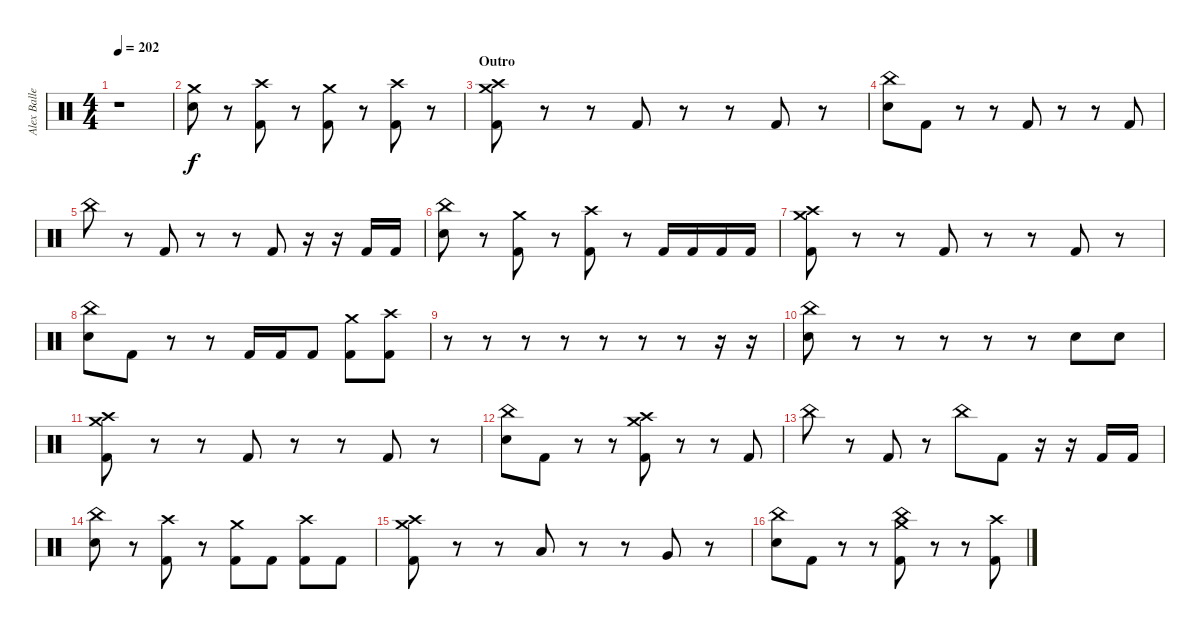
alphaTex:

\track ("Alex Ballew" "Alex Balle") {instrument percussion}
\staff {score}
\articulation defaults
\ts (4 4)
\tempo 202
\clef neutral
\ks c
r.1{dy f} |
("Crash medium (hit)" "Electric Snare (hit)").8 r.8 ("Crash high (hit)" "Kick (hit) 2").8 r.8 ("Crash medium (hit)" "Kick (hit) 2").8 r.8 ("Crash high (hit)" "Kick (hit) 2").8 r.8 |
\section ("" "Outro")
("Crash medium (hit)" "Crash high (hit)" "Kick (hit) 2").8 r.8 r.8 "Kick (hit) 2".8 r.8 r.8 "Kick (hit) 2".8 r.8 |
("China (hit)" "Electric Snare (hit)").8 "Kick (hit) 2".8 r.8 r.8 "Kick (hit) 2".8 r.8 r.8 "Kick (hit) 2".8 |
"China (hit)".8 r.8 "Kick (hit) 2".8 r.8 r.8 "Kick (hit) 2".8 r.16 r.16 "Kick (hit) 2".16 "Kick (hit) 2".16 |
("China (hit)" "Electric Snare (hit)").8 r.8 ("Crash medium (hit)" "Kick (hit) 2").8 r.8 ("Crash high (hit)" "Kick (hit) 2").8 r.8 "Kick (hit) 2".16 "Kick (hit) 2".16 "Kick (hit) 2".16 "Kick (hit) 2".16 |
("Crash medium (hit)" "Crash high (hit)" "Kick (hit) 2").8 r.8 r.8 "Kick (hit) 2".8 r.8 r.8 "Kick (hit) 2".8 r.8 |
("China (hit)" "Electric Snare (hit)").8 "Kick (hit) 2".8 r.8 r.8 "Kick (hit) 2".16 "Kick (hit) 2".16 "Kick (hit) 2".8 ("Crash medium (hit)" "Kick (hit) 2").8 ("Crash high (hit)" "Kick (hit) 2").8 |
r.8 r.8 r.8 r.8 r.8 r.8 r.8 r.16 r.16 |
("China (hit)" "Electric Snare (hit)").8 r.8 r.8 r.8 r.8 r.8 "Electric Snare (hit)".8 "Electric Snare (hit)".8 |
("Crash medium (hit)" "Crash high (hit)" "Kick (hit) 2").8 r.8 r.8 "Kick (hit) 2".8 r.8 r.8 "Kick (hit) 2".8 r.8 |
("China (hit)" "Electric Snare (hit)").8 "Kick (hit) 2".8 r.8 r.8 ("Crash medium (hit)" "Crash high (hit)" "Kick (hit) 2").8 r.8 r.8 "Kick (hit) 2".8 |
"China (hit)".8 r.8 "Kick (hit) 2".8 r.8 "China (hit)".8 "Kick (hit) 2".8 r.16 r.16 "Kick (hit) 2".16 "Kick (hit) 2".16 |
("China (hit)" "Electric Snare (hit)").8 r.8 ("Crash high (hit)" "Kick (hit) 2").8 r.8 ("Crash medium (hit)" "Kick (hit) 2").8 "Kick (hit) 2".8 ("Crash high (hit)" "Kick (hit) 2").8 "Kick (hit) 2".8 |
("Crash medium (hit)" "Crash high (hit)" "Kick (hit) 2").8 r.8 r.8 "Low Tom (hit)".8 r.8 r.8 "Very Low Tom (hit)".8 r.8 |
("China (hit)" "Electric Snare (hit)").8 "Kick (hit) 2".8 r.8 r.8 ("China (hit)" "Crash medium (hit)" "Kick (hit) 2").8 r.8 r.8 ("Crash high (hit)" "Kick (hit) 2").8
